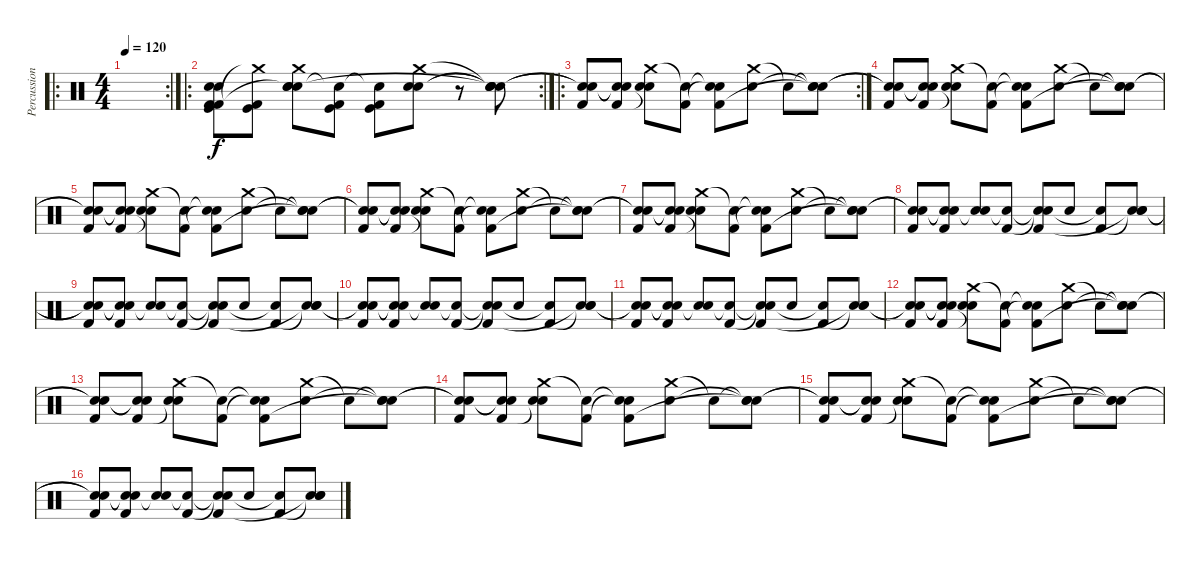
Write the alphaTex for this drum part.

\track ("Percussion" "Percussion") {instrument percussion}
\staff {score}
\articulation defaults
\ro
\rc 2
\ts (4 4)
\tempo 120
\clef neutral
\ks c
|
\ro
\rc 2
("Kick (hit) 2" "Snare (hit)" "Snare (hit)" "Kick (hit) 2" "Kick (hit)").8 ("Crash medium (hit)"{t} "Kick (hit)" "Kick (hit) 2").8 ("Snare (hit) 2" "Crash medium (hit)" "Snare (hit) 2" "Snare (hit)"{t}).8 ("Snare (hit)"{t} "Kick (hit) 2" "Kick (hit)").8 ("Snare (hit)"{t} "Kick (hit)" "Kick (hit) 2").8 ("Crash medium (hit)" "Snare (hit) 2" "Snare (hit) 2").8 r.8 ("Snare (hit)"{t} "Snare (hit)"{t} "Snare (hit)"{t} "Snare (hit)"{t}).8 |
\ro
\rc 2
("Snare (hit)"{t} "Snare (hit)"{t} "Kick (hit) 2").8 ("Snare (hit)"{t} "Snare (hit)"{t} "Kick (hit) 2").8 ("Crash medium (hit)" "Snare (hit) 2" "Snare (hit)"{t}).8 ("Snare (hit)"{t} "Kick (hit) 2").8 ("Snare (hit)"{t} "Snare (hit)"{t} "Kick (hit) 2").8 ("Crash medium (hit)" "Snare (hit) 2").8 "Snare (hit)"{t}.8 ("Snare (hit)"{t} "Snare (hit)"{t} "Snare (hit)"{t}).8 |
("Snare (hit)"{t} "Snare (hit)"{t} "Kick (hit) 2").8 ("Snare (hit)"{t} "Snare (hit)"{t} "Kick (hit) 2").8 ("Crash medium (hit)" "Snare (hit) 2" "Snare (hit)"{t}).8 ("Snare (hit)"{t} "Kick (hit) 2").8 ("Snare (hit)"{t} "Snare (hit)"{t} "Kick (hit) 2").8 ("Crash medium (hit)" "Snare (hit) 2").8 "Snare (hit)"{t}.8 ("Snare (hit)"{t} "Snare (hit)"{t} "Snare (hit)"{t}).8 |
("Snare (hit)"{t} "Snare (hit)"{t} "Kick (hit) 2").8 ("Snare (hit)"{t} "Snare (hit)"{t} "Kick (hit) 2").8 ("Crash medium (hit)" "Snare (hit) 2" "Snare (hit)"{t}).8 ("Snare (hit)"{t} "Kick (hit) 2").8 ("Snare (hit)"{t} "Snare (hit)"{t} "Kick (hit) 2").8 ("Crash medium (hit)" "Snare (hit) 2").8 "Snare (hit)"{t}.8 ("Snare (hit)"{t} "Snare (hit)"{t} "Snare (hit)"{t}).8 |
("Snare (hit)"{t} "Snare (hit)"{t} "Kick (hit) 2").8 ("Snare (hit)"{t} "Snare (hit)"{t} "Kick (hit) 2").8 ("Crash medium (hit)" "Snare (hit) 2" "Snare (hit)"{t}).8 ("Snare (hit)"{t} "Kick (hit) 2").8 ("Snare (hit)"{t} "Snare (hit)"{t} "Kick (hit) 2").8 ("Crash medium (hit)" "Snare (hit) 2").8 "Snare (hit)"{t}.8 ("Snare (hit)"{t} "Snare (hit)"{t} "Snare (hit)"{t}).8 |
("Snare (hit)"{t} "Snare (hit)"{t} "Kick (hit) 2").8 ("Snare (hit)"{t} "Snare (hit)"{t} "Kick (hit) 2").8 ("Crash medium (hit)" "Snare (hit) 2" "Snare (hit)"{t}).8 ("Snare (hit)"{t} "Kick (hit) 2").8 ("Snare (hit)"{t} "Snare (hit)"{t} "Kick (hit) 2").8 ("Crash medium (hit)" "Snare (hit) 2").8 "Snare (hit)"{t}.8 ("Snare (hit)"{t} "Snare (hit)"{t} "Snare (hit)"{t}).8 |
("Snare (hit)"{t} "Snare (hit)"{t} "Kick (hit) 2").8 ("Snare (hit)"{t} "Snare (hit)"{t} "Kick (hit) 2").8 ("Snare (hit) 2" "Snare (hit)"{t}).8 ("Snare (hit)"{t} "Kick (hit) 2").8 ("Snare (hit)"{t} "Snare (hit)"{t} "Kick (hit) 2").8 "Snare (hit) 2".8 ("Kick (hit) 2" "Snare (hit)"{t}).8 ("Snare (hit)"{t} "Snare (hit) 2" "Snare (hit)"{t}).8 |
("Snare (hit)"{t} "Snare (hit)"{t} "Kick (hit) 2").8 ("Snare (hit)"{t} "Snare (hit)"{t} "Kick (hit) 2").8 ("Snare (hit) 2" "Snare (hit)"{t}).8 ("Snare (hit)"{t} "Kick (hit) 2").8 ("Snare (hit)"{t} "Snare (hit)"{t} "Kick (hit) 2").8 "Snare (hit) 2".8 ("Kick (hit) 2" "Snare (hit)"{t}).8 ("Snare (hit)"{t} "Snare (hit) 2" "Snare (hit)"{t}).8 |
("Snare (hit)"{t} "Snare (hit)"{t} "Kick (hit) 2").8 ("Snare (hit)"{t} "Snare (hit)"{t} "Kick (hit) 2").8 ("Snare (hit) 2" "Snare (hit)"{t}).8 ("Snare (hit)"{t} "Kick (hit) 2").8 ("Snare (hit)"{t} "Snare (hit)"{t} "Kick (hit) 2").8 "Snare (hit) 2".8 ("Kick (hit) 2" "Snare (hit)"{t}).8 ("Snare (hit)"{t} "Snare (hit) 2" "Snare (hit)"{t}).8 |
("Snare (hit)"{t} "Snare (hit)"{t} "Kick (hit) 2").8 ("Snare (hit)"{t} "Snare (hit)"{t} "Kick (hit) 2").8 ("Snare (hit) 2" "Snare (hit)"{t}).8 ("Snare (hit)"{t} "Kick (hit) 2").8 ("Snare (hit)"{t} "Snare (hit)"{t} "Kick (hit) 2").8 "Snare (hit) 2".8 ("Kick (hit) 2" "Snare (hit)"{t}).8 ("Snare (hit)"{t} "Snare (hit) 2" "Snare (hit)"{t}).8 |
("Snare (hit)"{t} "Snare (hit)"{t} "Kick (hit) 2").8 ("Snare (hit)"{t} "Snare (hit)"{t} "Kick (hit) 2").8 ("Crash medium (hit)" "Snare (hit) 2" "Snare (hit)"{t}).8 ("Snare (hit)"{t} "Kick (hit) 2").8 ("Snare (hit)"{t} "Snare (hit)"{t} "Kick (hit) 2").8 ("Crash medium (hit)" "Snare (hit) 2").8 "Snare (hit)"{t}.8 ("Snare (hit)"{t} "Snare (hit)"{t} "Snare (hit)"{t}).8 |
("Snare (hit)"{t} "Snare (hit)"{t} "Kick (hit) 2").8 ("Snare (hit)"{t} "Snare (hit)"{t} "Kick (hit) 2").8 ("Crash medium (hit)" "Snare (hit) 2" "Snare (hit)"{t}).8 ("Snare (hit)"{t} "Kick (hit) 2").8 ("Snare (hit)"{t} "Snare (hit)"{t} "Kick (hit) 2").8 ("Crash medium (hit)" "Snare (hit) 2").8 "Snare (hit)"{t}.8 ("Snare (hit)"{t} "Snare (hit)"{t} "Snare (hit)"{t}).8 |
("Snare (hit)"{t} "Snare (hit)"{t} "Kick (hit) 2").8 ("Snare (hit)"{t} "Snare (hit)"{t} "Kick (hit) 2").8 ("Crash medium (hit)" "Snare (hit) 2" "Snare (hit)"{t}).8 ("Snare (hit)"{t} "Kick (hit) 2").8 ("Snare (hit)"{t} "Snare (hit)"{t} "Kick (hit) 2").8 ("Crash medium (hit)" "Snare (hit) 2").8 "Snare (hit)"{t}.8 ("Snare (hit)"{t} "Snare (hit)"{t} "Snare (hit)"{t}).8 |
("Snare (hit)"{t} "Snare (hit)"{t} "Kick (hit) 2").8 ("Snare (hit)"{t} "Snare (hit)"{t} "Kick (hit) 2").8 ("Crash medium (hit)" "Snare (hit) 2" "Snare (hit)"{t}).8 ("Snare (hit)"{t} "Kick (hit) 2").8 ("Snare (hit)"{t} "Snare (hit)"{t} "Kick (hit) 2").8 ("Crash medium (hit)" "Snare (hit) 2").8 "Snare (hit)"{t}.8 ("Snare (hit)"{t} "Snare (hit)"{t} "Snare (hit)"{t}).8 |
("Snare (hit)"{t} "Snare (hit)"{t} "Kick (hit) 2").8 ("Snare (hit)"{t} "Snare (hit)"{t} "Kick (hit) 2").8 ("Snare (hit) 2" "Snare (hit)"{t}).8 ("Snare (hit)"{t} "Kick (hit) 2").8 ("Snare (hit)"{t} "Snare (hit)"{t} "Kick (hit) 2").8 "Snare (hit) 2".8 ("Kick (hit) 2" "Snare (hit)"{t}).8 ("Snare (hit)"{t} "Snare (hit) 2" "Snare (hit)"{t}).8
